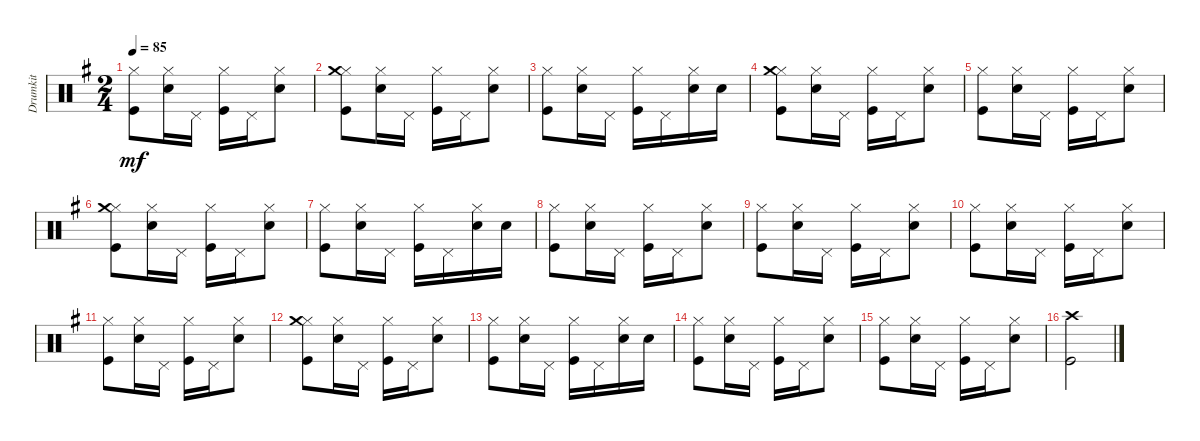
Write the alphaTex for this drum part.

\track ("Drumkit" "Drumkit") {instrument percussion}
\staff {score}
\articulation defaults
\ts (2 4)
\tempo 85
\clef neutral
\ks g
("Kick (hit)" "Hi-Hat (closed)").8{dy mf} ("Snare (hit) 2" "Hi-Hat (closed)").16 "Pedal Hi-Hat (hit)".16 ("Kick (hit)" "Hi-Hat (closed)").16 "Pedal Hi-Hat (hit)".16 ("Snare (hit) 2" "Hi-Hat (closed)").8 |
("Kick (hit)" "Hi-Hat (closed)" "Crash medium (hit)").8 ("Snare (hit) 2" "Hi-Hat (closed)").16 "Pedal Hi-Hat (hit)".16 ("Kick (hit)" "Hi-Hat (closed)").16 "Pedal Hi-Hat (hit)".16 ("Snare (hit) 2" "Hi-Hat (closed)").8 |
("Kick (hit)" "Hi-Hat (closed)").8 ("Snare (hit) 2" "Hi-Hat (closed)").16 "Pedal Hi-Hat (hit)".16 ("Kick (hit)" "Hi-Hat (closed)").16 "Pedal Hi-Hat (hit)".16 ("Snare (hit) 2" "Hi-Hat (closed)").16 "Snare (hit) 2".16 |
("Kick (hit)" "Hi-Hat (closed)" "Crash medium (hit)").8 ("Snare (hit) 2" "Hi-Hat (closed)").16 "Pedal Hi-Hat (hit)".16 ("Kick (hit)" "Hi-Hat (closed)").16 "Pedal Hi-Hat (hit)".16 ("Snare (hit) 2" "Hi-Hat (closed)").8 |
("Kick (hit)" "Hi-Hat (closed)").8 ("Snare (hit) 2" "Hi-Hat (closed)").16 "Pedal Hi-Hat (hit)".16 ("Kick (hit)" "Hi-Hat (closed)").16 "Pedal Hi-Hat (hit)".16 ("Snare (hit) 2" "Hi-Hat (closed)").8 |
("Kick (hit)" "Hi-Hat (closed)" "Crash medium (hit)").8 ("Snare (hit) 2" "Hi-Hat (closed)").16 "Pedal Hi-Hat (hit)".16 ("Kick (hit)" "Hi-Hat (closed)").16 "Pedal Hi-Hat (hit)".16 ("Snare (hit) 2" "Hi-Hat (closed)").8 |
("Kick (hit)" "Hi-Hat (closed)").8 ("Snare (hit) 2" "Hi-Hat (closed)").16 "Pedal Hi-Hat (hit)".16 ("Kick (hit)" "Hi-Hat (closed)").16 "Pedal Hi-Hat (hit)".16 ("Snare (hit) 2" "Hi-Hat (closed)").16 "Snare (hit) 2".16 |
("Kick (hit)" "Hi-Hat (closed)").8 ("Snare (hit) 2" "Hi-Hat (closed)").16 "Pedal Hi-Hat (hit)".16 ("Kick (hit)" "Hi-Hat (closed)").16 "Pedal Hi-Hat (hit)".16 ("Snare (hit) 2" "Hi-Hat (closed)").8 |
("Kick (hit)" "Hi-Hat (closed)").8 ("Snare (hit) 2" "Hi-Hat (closed)").16 "Pedal Hi-Hat (hit)".16 ("Kick (hit)" "Hi-Hat (closed)").16 "Pedal Hi-Hat (hit)".16 ("Snare (hit) 2" "Hi-Hat (closed)").8 |
("Kick (hit)" "Hi-Hat (closed)").8 ("Snare (hit) 2" "Hi-Hat (closed)").16 "Pedal Hi-Hat (hit)".16 ("Kick (hit)" "Hi-Hat (closed)").16 "Pedal Hi-Hat (hit)".16 ("Snare (hit) 2" "Hi-Hat (closed)").8 |
("Kick (hit)" "Hi-Hat (closed)").8 ("Snare (hit) 2" "Hi-Hat (closed)").16 "Pedal Hi-Hat (hit)".16 ("Kick (hit)" "Hi-Hat (closed)").16 "Pedal Hi-Hat (hit)".16 ("Snare (hit) 2" "Hi-Hat (closed)").8 |
("Kick (hit)" "Hi-Hat (closed)" "Crash medium (hit)").8 ("Snare (hit) 2" "Hi-Hat (closed)").16 "Pedal Hi-Hat (hit)".16 ("Kick (hit)" "Hi-Hat (closed)").16 "Pedal Hi-Hat (hit)".16 ("Snare (hit) 2" "Hi-Hat (closed)").8 |
("Kick (hit)" "Hi-Hat (closed)").8 ("Snare (hit) 2" "Hi-Hat (closed)").16 "Pedal Hi-Hat (hit)".16 ("Kick (hit)" "Hi-Hat (closed)").16 "Pedal Hi-Hat (hit)".16 ("Snare (hit) 2" "Hi-Hat (closed)").16 "Snare (hit) 2".16 |
("Kick (hit)" "Hi-Hat (closed)").8 ("Snare (hit) 2" "Hi-Hat (closed)").16 "Pedal Hi-Hat (hit)".16 ("Kick (hit)" "Hi-Hat (closed)").16 "Pedal Hi-Hat (hit)".16 ("Snare (hit) 2" "Hi-Hat (closed)").8 |
("Kick (hit)" "Hi-Hat (closed)").8 ("Snare (hit) 2" "Hi-Hat (closed)").16 "Pedal Hi-Hat (hit)".16 ("Kick (hit)" "Hi-Hat (closed)").16 "Pedal Hi-Hat (hit)".16 ("Snare (hit) 2" "Hi-Hat (closed)").8 |
("Kick (hit)" "Crash high (hit)").2
